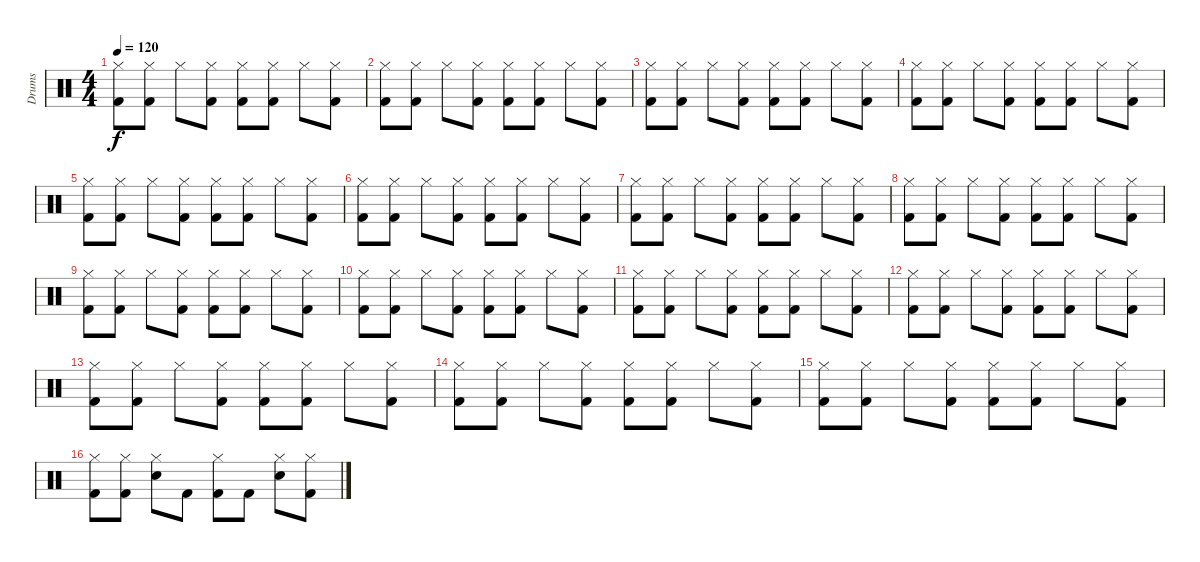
\track ("Drums" "Drums") {instrument percussion}
\staff {score}
\articulation defaults
\ts (4 4)
\tempo 120
\clef neutral
\ks c
("Hi-Hat (closed)" "Kick (hit) 2").8{dy f} ("Hi-Hat (closed)" "Kick (hit) 2").8 "Hi-Hat (closed)".8 ("Hi-Hat (closed)" "Kick (hit) 2").8 ("Hi-Hat (closed)" "Kick (hit) 2").8 ("Hi-Hat (closed)" "Kick (hit) 2").8 "Hi-Hat (closed)".8 ("Hi-Hat (closed)" "Kick (hit) 2").8 |
("Hi-Hat (closed)" "Kick (hit) 2").8 ("Hi-Hat (closed)" "Kick (hit) 2").8 "Hi-Hat (closed)".8 ("Hi-Hat (closed)" "Kick (hit) 2").8 ("Hi-Hat (closed)" "Kick (hit) 2").8 ("Hi-Hat (closed)" "Kick (hit) 2").8 "Hi-Hat (closed)".8 ("Hi-Hat (closed)" "Kick (hit) 2").8 |
("Hi-Hat (closed)" "Kick (hit) 2").8 ("Hi-Hat (closed)" "Kick (hit) 2").8 "Hi-Hat (closed)".8 ("Hi-Hat (closed)" "Kick (hit) 2").8 ("Hi-Hat (closed)" "Kick (hit) 2").8 ("Hi-Hat (closed)" "Kick (hit) 2").8 "Hi-Hat (closed)".8 ("Hi-Hat (closed)" "Kick (hit) 2").8 |
("Hi-Hat (closed)" "Kick (hit) 2").8 ("Hi-Hat (closed)" "Kick (hit) 2").8 "Hi-Hat (closed)".8 ("Hi-Hat (closed)" "Kick (hit) 2").8 ("Hi-Hat (closed)" "Kick (hit) 2").8 ("Hi-Hat (closed)" "Kick (hit) 2").8 "Hi-Hat (closed)".8 ("Hi-Hat (closed)" "Kick (hit) 2").8 |
("Hi-Hat (closed)" "Kick (hit) 2").8 ("Hi-Hat (closed)" "Kick (hit) 2").8 "Hi-Hat (closed)".8 ("Hi-Hat (closed)" "Kick (hit) 2").8 ("Hi-Hat (closed)" "Kick (hit) 2").8 ("Hi-Hat (closed)" "Kick (hit) 2").8 "Hi-Hat (closed)".8 ("Hi-Hat (closed)" "Kick (hit) 2").8 |
("Hi-Hat (closed)" "Kick (hit) 2").8 ("Hi-Hat (closed)" "Kick (hit) 2").8 "Hi-Hat (closed)".8 ("Hi-Hat (closed)" "Kick (hit) 2").8 ("Hi-Hat (closed)" "Kick (hit) 2").8 ("Hi-Hat (closed)" "Kick (hit) 2").8 "Hi-Hat (closed)".8 ("Hi-Hat (closed)" "Kick (hit) 2").8 |
("Hi-Hat (closed)" "Kick (hit) 2").8 ("Hi-Hat (closed)" "Kick (hit) 2").8 "Hi-Hat (closed)".8 ("Hi-Hat (closed)" "Kick (hit) 2").8 ("Hi-Hat (closed)" "Kick (hit) 2").8 ("Hi-Hat (closed)" "Kick (hit) 2").8 "Hi-Hat (closed)".8 ("Hi-Hat (closed)" "Kick (hit) 2").8 |
("Hi-Hat (closed)" "Kick (hit) 2").8 ("Hi-Hat (closed)" "Kick (hit) 2").8 "Hi-Hat (closed)".8 ("Hi-Hat (closed)" "Kick (hit) 2").8 ("Hi-Hat (closed)" "Kick (hit) 2").8 ("Hi-Hat (closed)" "Kick (hit) 2").8 "Hi-Hat (closed)".8 ("Hi-Hat (closed)" "Kick (hit) 2").8 |
("Hi-Hat (closed)" "Kick (hit) 2").8 ("Hi-Hat (closed)" "Kick (hit) 2").8 "Hi-Hat (closed)".8 ("Hi-Hat (closed)" "Kick (hit) 2").8 ("Hi-Hat (closed)" "Kick (hit) 2").8 ("Hi-Hat (closed)" "Kick (hit) 2").8 "Hi-Hat (closed)".8 ("Hi-Hat (closed)" "Kick (hit) 2").8 |
("Hi-Hat (closed)" "Kick (hit) 2").8 ("Hi-Hat (closed)" "Kick (hit) 2").8 "Hi-Hat (closed)".8 ("Hi-Hat (closed)" "Kick (hit) 2").8 ("Hi-Hat (closed)" "Kick (hit) 2").8 ("Hi-Hat (closed)" "Kick (hit) 2").8 "Hi-Hat (closed)".8 ("Hi-Hat (closed)" "Kick (hit) 2").8 |
("Hi-Hat (closed)" "Kick (hit) 2").8 ("Hi-Hat (closed)" "Kick (hit) 2").8 "Hi-Hat (closed)".8 ("Hi-Hat (closed)" "Kick (hit) 2").8 ("Hi-Hat (closed)" "Kick (hit) 2").8 ("Hi-Hat (closed)" "Kick (hit) 2").8 "Hi-Hat (closed)".8 ("Hi-Hat (closed)" "Kick (hit) 2").8 |
("Hi-Hat (closed)" "Kick (hit) 2").8 ("Hi-Hat (closed)" "Kick (hit) 2").8 "Hi-Hat (closed)".8 ("Hi-Hat (closed)" "Kick (hit) 2").8 ("Hi-Hat (closed)" "Kick (hit) 2").8 ("Hi-Hat (closed)" "Kick (hit) 2").8 "Hi-Hat (closed)".8 ("Hi-Hat (closed)" "Kick (hit) 2").8 |
("Hi-Hat (closed)" "Kick (hit) 2").8 ("Hi-Hat (closed)" "Kick (hit) 2").8 "Hi-Hat (closed)".8 ("Hi-Hat (closed)" "Kick (hit) 2").8 ("Hi-Hat (closed)" "Kick (hit) 2").8 ("Hi-Hat (closed)" "Kick (hit) 2").8 "Hi-Hat (closed)".8 ("Hi-Hat (closed)" "Kick (hit) 2").8 |
("Hi-Hat (closed)" "Kick (hit) 2").8 ("Hi-Hat (closed)" "Kick (hit) 2").8 "Hi-Hat (closed)".8 ("Hi-Hat (closed)" "Kick (hit) 2").8 ("Hi-Hat (closed)" "Kick (hit) 2").8 ("Hi-Hat (closed)" "Kick (hit) 2").8 "Hi-Hat (closed)".8 ("Hi-Hat (closed)" "Kick (hit) 2").8 |
("Hi-Hat (closed)" "Kick (hit) 2").8 ("Hi-Hat (closed)" "Kick (hit) 2").8 "Hi-Hat (closed)".8 ("Hi-Hat (closed)" "Kick (hit) 2").8 ("Hi-Hat (closed)" "Kick (hit) 2").8 ("Hi-Hat (closed)" "Kick (hit) 2").8 "Hi-Hat (closed)".8 ("Hi-Hat (closed)" "Kick (hit) 2").8 |
("Hi-Hat (closed)" "Kick (hit) 2").8 ("Hi-Hat (closed)" "Kick (hit) 2").8 ("Hi-Hat (closed)" "Snare (hit) 2").8 "Kick (hit) 2".8 ("Hi-Hat (closed)" "Kick (hit) 2").8 "Kick (hit) 2".8 ("Hi-Hat (closed)" "Snare (hit) 2").8 ("Hi-Hat (closed)" "Kick (hit) 2").8
